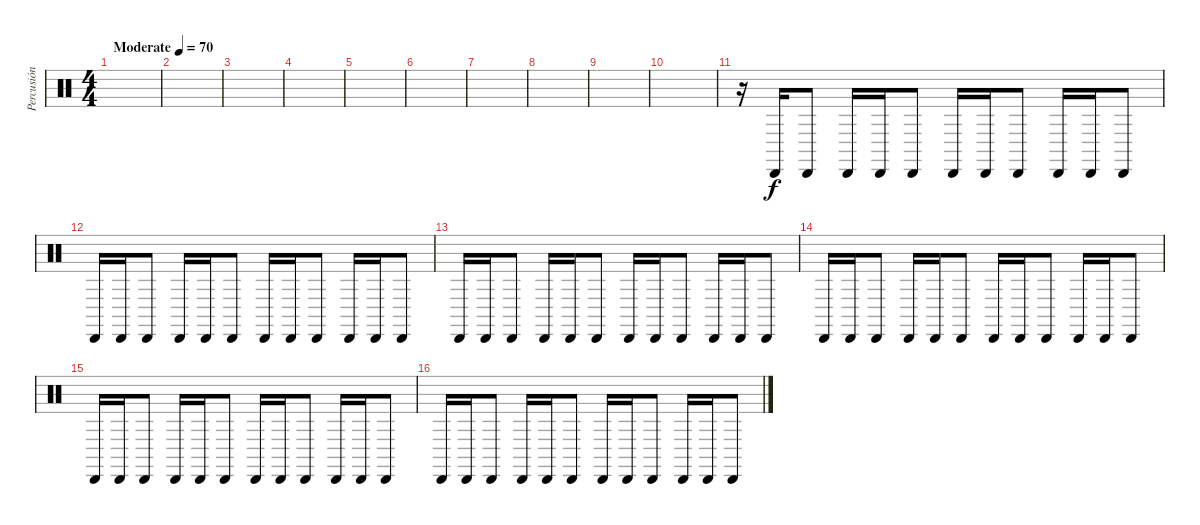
\track ("Percusión" "Percusión") {instrument percussion}
\staff {score}
\articulation defaults
\ts (4 4)
\tempo (70 "Moderate")
\clef neutral
\ks c
|
|
|
|
|
|
|
|
|
|
r.16 "Cabasa (hit)".16 "Cabasa (hit)".8 "Cabasa (hit)".16 "Cabasa (hit)".16 "Cabasa (hit)".8 "Cabasa (hit)".16 "Cabasa (hit)".16 "Cabasa (hit)".8 "Cabasa (hit)".16 "Cabasa (hit)".16 "Cabasa (hit)".8 |
"Cabasa (hit)".16 "Cabasa (hit)".16 "Cabasa (hit)".8 "Cabasa (hit)".16 "Cabasa (hit)".16 "Cabasa (hit)".8 "Cabasa (hit)".16 "Cabasa (hit)".16 "Cabasa (hit)".8 "Cabasa (hit)".16 "Cabasa (hit)".16 "Cabasa (hit)".8 |
"Cabasa (hit)".16 "Cabasa (hit)".16 "Cabasa (hit)".8 "Cabasa (hit)".16 "Cabasa (hit)".16 "Cabasa (hit)".8 "Cabasa (hit)".16 "Cabasa (hit)".16 "Cabasa (hit)".8 "Cabasa (hit)".16 "Cabasa (hit)".16 "Cabasa (hit)".8 |
"Cabasa (hit)".16 "Cabasa (hit)".16 "Cabasa (hit)".8 "Cabasa (hit)".16 "Cabasa (hit)".16 "Cabasa (hit)".8 "Cabasa (hit)".16 "Cabasa (hit)".16 "Cabasa (hit)".8 "Cabasa (hit)".16 "Cabasa (hit)".16 "Cabasa (hit)".8 |
"Cabasa (hit)".16 "Cabasa (hit)".16 "Cabasa (hit)".8 "Cabasa (hit)".16 "Cabasa (hit)".16 "Cabasa (hit)".8 "Cabasa (hit)".16 "Cabasa (hit)".16 "Cabasa (hit)".8 "Cabasa (hit)".16 "Cabasa (hit)".16 "Cabasa (hit)".8 |
"Cabasa (hit)".16 "Cabasa (hit)".16 "Cabasa (hit)".8 "Cabasa (hit)".16 "Cabasa (hit)".16 "Cabasa (hit)".8 "Cabasa (hit)".16 "Cabasa (hit)".16 "Cabasa (hit)".8 "Cabasa (hit)".16 "Cabasa (hit)".16 "Cabasa (hit)".8
